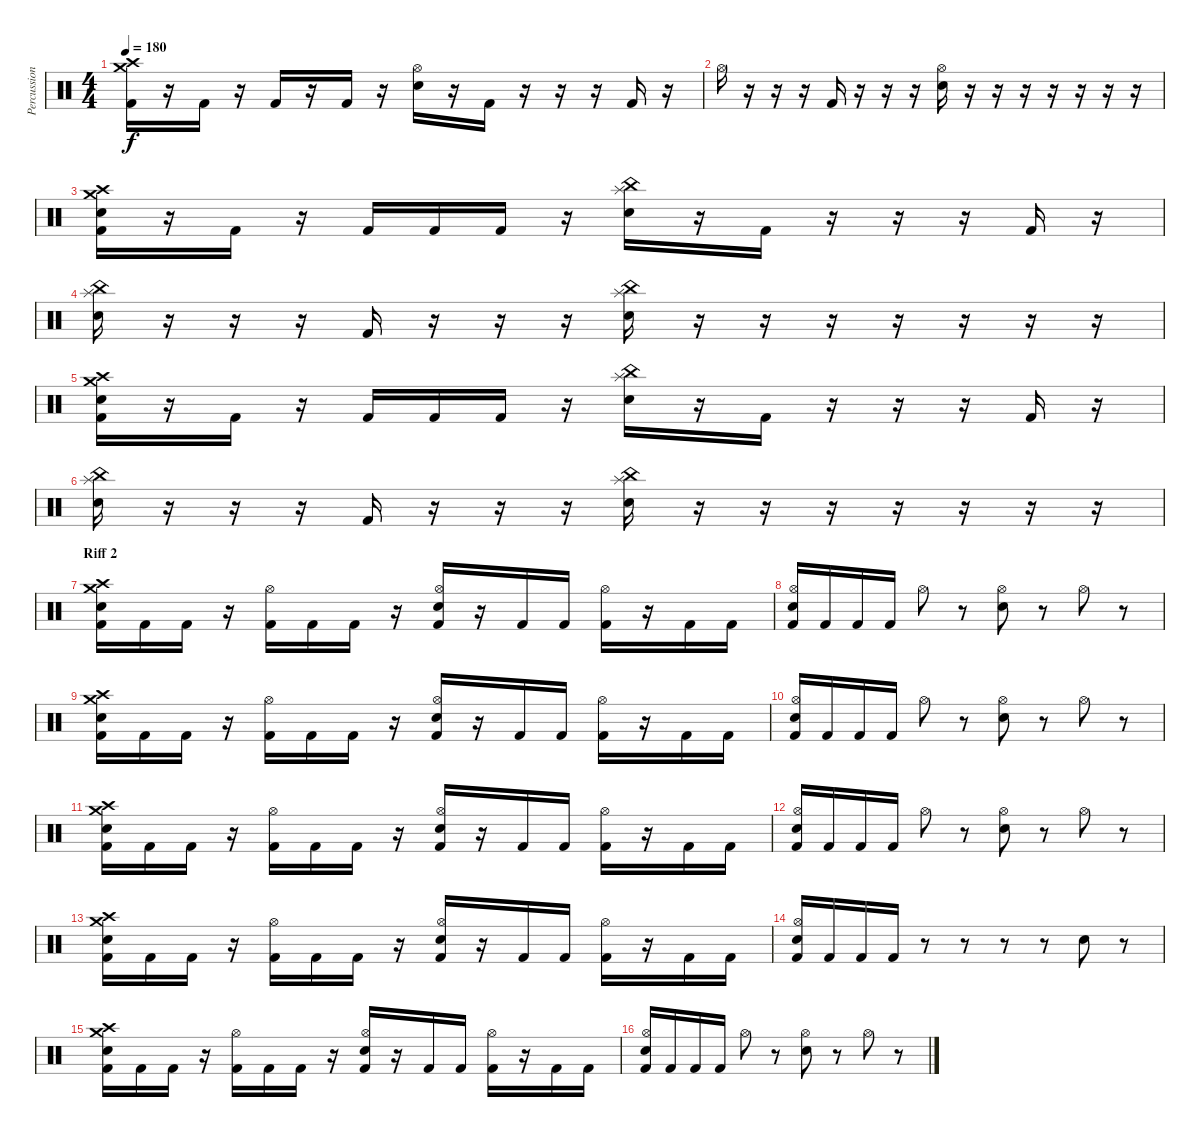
\track ("Percussion" "Percussion") {instrument percussion}
\staff {score}
\articulation defaults
\ts (4 4)
\tempo 180
\clef neutral
\ks c
("Crash medium (hit)" "Crash high (hit)" "Kick (hit) 2").16{dy f} r.16 "Kick (hit) 2".16 r.16 "Kick (hit) 2".16 r.16 "Kick (hit) 2".16 r.16 ("Hi-Hat (open)" "Electric Snare (hit)").16 r.16 "Kick (hit) 2".16 r.16 r.16 r.16 "Kick (hit) 2".16 r.16 |
"Hi-Hat (open)".16 r.16 r.16 r.16 "Kick (hit) 2".16 r.16 r.16 r.16 ("Hi-Hat (open)" "Electric Snare (hit)").16 r.16 r.16 r.16 r.16 r.16 r.16 r.16 |
("Crash medium (hit)" "Crash high (hit)" "Electric Snare (hit)" "Kick (hit) 2").16 r.16 "Kick (hit) 2".16 r.16 "Kick (hit) 2".16 "Kick (hit) 2".16 "Kick (hit) 2".16 r.16 ("China (hit)" "Splash (hit)" "Electric Snare (hit)").16 r.16 "Kick (hit) 2".16 r.16 r.16 r.16 "Kick (hit) 2".16 r.16 |
("China (hit)" "Splash (hit)" "Electric Snare (hit)").16 r.16 r.16 r.16 "Kick (hit) 2".16 r.16 r.16 r.16 ("China (hit)" "Splash (hit)" "Electric Snare (hit)").16 r.16 r.16 r.16 r.16 r.16 r.16 r.16 |
("Crash medium (hit)" "Crash high (hit)" "Electric Snare (hit)" "Kick (hit) 2").16 r.16 "Kick (hit) 2".16 r.16 "Kick (hit) 2".16 "Kick (hit) 2".16 "Kick (hit) 2".16 r.16 ("China (hit)" "Splash (hit)" "Electric Snare (hit)").16 r.16 "Kick (hit) 2".16 r.16 r.16 r.16 "Kick (hit) 2".16 r.16 |
("China (hit)" "Splash (hit)" "Electric Snare (hit)").16 r.16 r.16 r.16 "Kick (hit) 2".16 r.16 r.16 r.16 ("China (hit)" "Splash (hit)" "Electric Snare (hit)").16 r.16 r.16 r.16 r.16 r.16 r.16 r.16 |
\section ("" "Riff 2")
("Crash medium (hit)" "Crash high (hit)" "Electric Snare (hit)" "Kick (hit) 2").16 "Kick (hit) 2".16 "Kick (hit) 2".16 r.16 ("Hi-Hat (open)" "Kick (hit) 2").16 "Kick (hit) 2".16 "Kick (hit) 2".16 r.16 ("Hi-Hat (open)" "Electric Snare (hit)" "Kick (hit) 2").16 r.16 "Kick (hit) 2".16 "Kick (hit) 2".16 ("Hi-Hat (open)" "Kick (hit) 2").16 r.16 "Kick (hit) 2".16 "Kick (hit) 2".16 |
("Hi-Hat (open)" "Electric Snare (hit)" "Kick (hit) 2").16 "Kick (hit) 2".16 "Kick (hit) 2".16 "Kick (hit) 2".16 "Hi-Hat (open)".8 r.8 ("Hi-Hat (open)" "Electric Snare (hit)").8 r.8 "Hi-Hat (open)".8 r.8 |
("Crash medium (hit)" "Crash high (hit)" "Electric Snare (hit)" "Kick (hit) 2").16 "Kick (hit) 2".16 "Kick (hit) 2".16 r.16 ("Hi-Hat (open)" "Kick (hit) 2").16 "Kick (hit) 2".16 "Kick (hit) 2".16 r.16 ("Hi-Hat (open)" "Electric Snare (hit)" "Kick (hit) 2").16 r.16 "Kick (hit) 2".16 "Kick (hit) 2".16 ("Hi-Hat (open)" "Kick (hit) 2").16 r.16 "Kick (hit) 2".16 "Kick (hit) 2".16 |
("Hi-Hat (open)" "Electric Snare (hit)" "Kick (hit) 2").16 "Kick (hit) 2".16 "Kick (hit) 2".16 "Kick (hit) 2".16 "Hi-Hat (open)".8 r.8 ("Hi-Hat (open)" "Electric Snare (hit)").8 r.8 "Hi-Hat (open)".8 r.8 |
("Crash medium (hit)" "Crash high (hit)" "Electric Snare (hit)" "Kick (hit) 2").16 "Kick (hit) 2".16 "Kick (hit) 2".16 r.16 ("Hi-Hat (open)" "Kick (hit) 2").16 "Kick (hit) 2".16 "Kick (hit) 2".16 r.16 ("Hi-Hat (open)" "Electric Snare (hit)" "Kick (hit) 2").16 r.16 "Kick (hit) 2".16 "Kick (hit) 2".16 ("Hi-Hat (open)" "Kick (hit) 2").16 r.16 "Kick (hit) 2".16 "Kick (hit) 2".16 |
("Hi-Hat (open)" "Electric Snare (hit)" "Kick (hit) 2").16 "Kick (hit) 2".16 "Kick (hit) 2".16 "Kick (hit) 2".16 "Hi-Hat (open)".8 r.8 ("Hi-Hat (open)" "Electric Snare (hit)").8 r.8 "Hi-Hat (open)".8 r.8 |
("Crash medium (hit)" "Crash high (hit)" "Electric Snare (hit)" "Kick (hit) 2").16 "Kick (hit) 2".16 "Kick (hit) 2".16 r.16 ("Hi-Hat (open)" "Kick (hit) 2").16 "Kick (hit) 2".16 "Kick (hit) 2".16 r.16 ("Hi-Hat (open)" "Electric Snare (hit)" "Kick (hit) 2").16 r.16 "Kick (hit) 2".16 "Kick (hit) 2".16 ("Hi-Hat (open)" "Kick (hit) 2").16 r.16 "Kick (hit) 2".16 "Kick (hit) 2".16 |
("Hi-Hat (open)" "Electric Snare (hit)" "Kick (hit) 2").16 "Kick (hit) 2".16 "Kick (hit) 2".16 "Kick (hit) 2".16 r.8 r.8 r.8 r.8 "Electric Snare (hit)".8 r.8 |
("Crash medium (hit)" "Crash high (hit)" "Electric Snare (hit)" "Kick (hit) 2").16 "Kick (hit) 2".16 "Kick (hit) 2".16 r.16 ("Hi-Hat (open)" "Kick (hit) 2").16 "Kick (hit) 2".16 "Kick (hit) 2".16 r.16 ("Hi-Hat (open)" "Electric Snare (hit)" "Kick (hit) 2").16 r.16 "Kick (hit) 2".16 "Kick (hit) 2".16 ("Hi-Hat (open)" "Kick (hit) 2").16 r.16 "Kick (hit) 2".16 "Kick (hit) 2".16 |
("Hi-Hat (open)" "Electric Snare (hit)" "Kick (hit) 2").16 "Kick (hit) 2".16 "Kick (hit) 2".16 "Kick (hit) 2".16 "Hi-Hat (open)".8 r.8 ("Hi-Hat (open)" "Electric Snare (hit)").8 r.8 "Hi-Hat (open)".8 r.8
